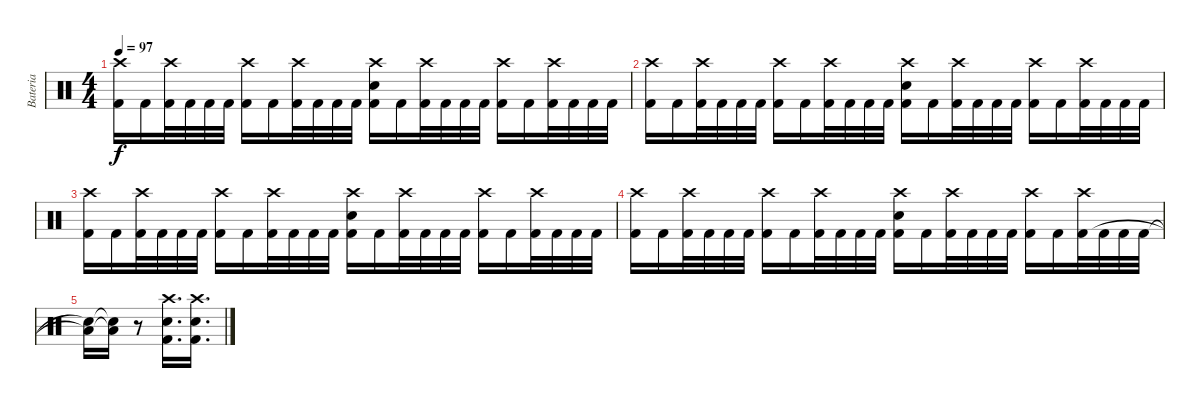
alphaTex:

\track ("Bateria" "Bateria") {instrument percussion}
\staff {score}
\articulation defaults
\ts (4 4)
\tempo 97
\clef neutral
\ks c
("Crash high (hit)" "Kick (hit) 2").16{dy f} "Kick (hit) 2".16 ("Crash high (hit)" "Kick (hit) 2").32 "Kick (hit) 2".32 "Kick (hit) 2".32 "Kick (hit) 2".32 ("Crash high (hit)" "Kick (hit) 2").16 "Kick (hit) 2".16 ("Crash high (hit)" "Kick (hit) 2").32 "Kick (hit) 2".32 "Kick (hit) 2".32 "Kick (hit) 2".32 ("Crash high (hit)" "Electric Snare (hit)" "Kick (hit) 2").16 "Kick (hit) 2".16 ("Crash high (hit)" "Kick (hit) 2").32 "Kick (hit) 2".32 "Kick (hit) 2".32 "Kick (hit) 2".32 ("Crash high (hit)" "Kick (hit) 2").16 "Kick (hit) 2".16 ("Crash high (hit)" "Kick (hit) 2").32 "Kick (hit) 2".32 "Kick (hit) 2".32 "Kick (hit) 2".32 |
("Crash high (hit)" "Kick (hit) 2").16 "Kick (hit) 2".16 ("Crash high (hit)" "Kick (hit) 2").32 "Kick (hit) 2".32 "Kick (hit) 2".32 "Kick (hit) 2".32 ("Crash high (hit)" "Kick (hit) 2").16 "Kick (hit) 2".16 ("Crash high (hit)" "Kick (hit) 2").32 "Kick (hit) 2".32 "Kick (hit) 2".32 "Kick (hit) 2".32 ("Crash high (hit)" "Electric Snare (hit)" "Kick (hit) 2").16 "Kick (hit) 2".16 ("Crash high (hit)" "Kick (hit) 2").32 "Kick (hit) 2".32 "Kick (hit) 2".32 "Kick (hit) 2".32 ("Crash high (hit)" "Kick (hit) 2").16 "Kick (hit) 2".16 ("Crash high (hit)" "Kick (hit) 2").32 "Kick (hit) 2".32 "Kick (hit) 2".32 "Kick (hit) 2".32 |
("Crash high (hit)" "Kick (hit) 2").16 "Kick (hit) 2".16 ("Crash high (hit)" "Kick (hit) 2").32 "Kick (hit) 2".32 "Kick (hit) 2".32 "Kick (hit) 2".32 ("Crash high (hit)" "Kick (hit) 2").16 "Kick (hit) 2".16 ("Crash high (hit)" "Kick (hit) 2").32 "Kick (hit) 2".32 "Kick (hit) 2".32 "Kick (hit) 2".32 ("Crash high (hit)" "Electric Snare (hit)" "Kick (hit) 2").16 "Kick (hit) 2".16 ("Crash high (hit)" "Kick (hit) 2").32 "Kick (hit) 2".32 "Kick (hit) 2".32 "Kick (hit) 2".32 ("Crash high (hit)" "Kick (hit) 2").16 "Kick (hit) 2".16 ("Crash high (hit)" "Kick (hit) 2").32 "Kick (hit) 2".32 "Kick (hit) 2".32 "Kick (hit) 2".32 |
("Crash high (hit)" "Kick (hit) 2").16 "Kick (hit) 2".16 ("Crash high (hit)" "Kick (hit) 2").32 "Kick (hit) 2".32 "Kick (hit) 2".32 "Kick (hit) 2".32 ("Crash high (hit)" "Kick (hit) 2").16 "Kick (hit) 2".16 ("Crash high (hit)" "Kick (hit) 2").32 "Kick (hit) 2".32 "Kick (hit) 2".32 "Kick (hit) 2".32 ("Crash high (hit)" "Electric Snare (hit)" "Kick (hit) 2").16 "Kick (hit) 2".16 ("Crash high (hit)" "Kick (hit) 2").32 "Kick (hit) 2".32 "Kick (hit) 2".32 "Kick (hit) 2".32 ("Crash high (hit)" "Kick (hit) 2").16 "Kick (hit) 2".16 ("Crash high (hit)" "Kick (hit) 2").32 "Kick (hit) 2".32 "Kick (hit) 2".32 "Kick (hit) 2".32 |
("Low Floor Tom (hit)"{t} "Electric Snare (hit)"{t}).16 ("Low Floor Tom (hit)"{t} "Electric Snare (hit)"{t}).16 r.8 ("Crash high (hit)" "Kick (hit) 2" "Electric Snare (hit)").16{d} ("Crash high (hit)" "Kick (hit) 2" "Electric Snare (hit)").16{d}
